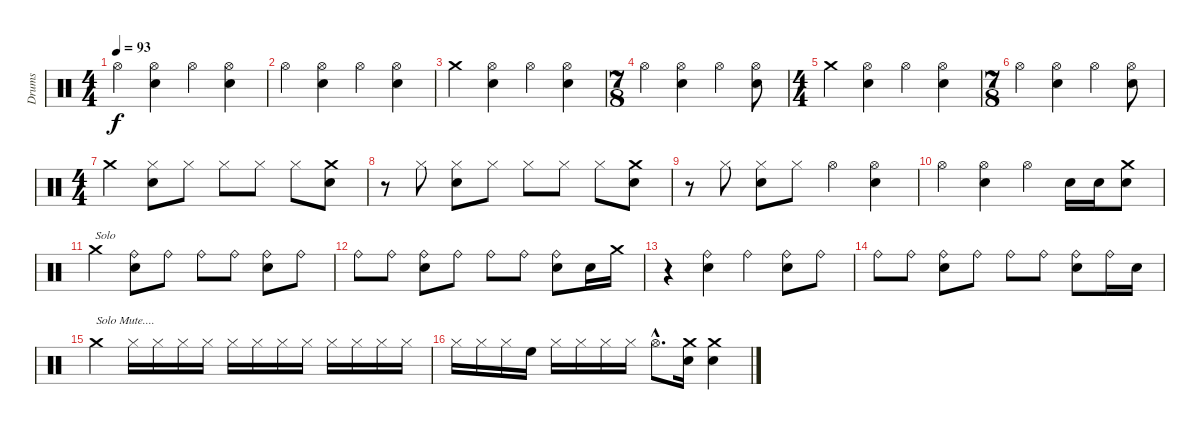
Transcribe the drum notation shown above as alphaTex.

\track ("Drums" "Drums") {instrument percussion}
\staff {score}
\articulation defaults
\ts (4 4)
\tempo 93
\clef neutral
\ks c "Hi-Hat (open)".4{dy f}
("Hi-Hat (open)" "Electric Snare (hit)").4 "Hi-Hat (open)".4 ("Hi-Hat (open)" "Electric Snare (hit)").4 |
"Hi-Hat (open)".4 ("Hi-Hat (open)" "Electric Snare (hit)").4 "Hi-Hat (open)".4 ("Hi-Hat (open)" "Electric Snare (hit)").4 |
"Crash medium (hit)".4 ("Hi-Hat (open)" "Electric Snare (hit)").4 "Hi-Hat (open)".4 ("Hi-Hat (open)" "Electric Snare (hit)").4 |
\ts (7 8)
"Hi-Hat (open)".4 ("Hi-Hat (open)" "Electric Snare (hit)").4 "Hi-Hat (open)".4 ("Hi-Hat (open)" "Electric Snare (hit)").8 |
\ts (4 4)
"Crash medium (hit)".4 ("Hi-Hat (open)" "Electric Snare (hit)").4 "Hi-Hat (open)".4 ("Hi-Hat (open)" "Electric Snare (hit)").4 |
\ts (7 8)
"Hi-Hat (open)".4 ("Hi-Hat (open)" "Electric Snare (hit)").4 "Hi-Hat (open)".4 ("Hi-Hat (open)" "Electric Snare (hit)").8 |
\ts (4 4)
"Crash medium (hit)".4 ("Hi-Hat (closed)" "Electric Snare (hit)").8 "Hi-Hat (closed)".8 "Hi-Hat (closed)".8 "Hi-Hat (closed)".8 "Hi-Hat (closed)".8 ("Crash medium (hit)" "Electric Snare (hit)").8 |
r.8 "Hi-Hat (closed)".8 ("Hi-Hat (closed)" "Electric Snare (hit)").8 "Hi-Hat (closed)".8 "Hi-Hat (closed)".8 "Hi-Hat (closed)".8 "Hi-Hat (closed)".8 ("Crash medium (hit)" "Electric Snare (hit)").8 |
r.8 "Hi-Hat (closed)".8 ("Hi-Hat (closed)" "Electric Snare (hit)").8 "Hi-Hat (closed)".8 "Hi-Hat (open)".4 ("Hi-Hat (open)" "Electric Snare (hit)").4 |
"Hi-Hat (open)".4 ("Hi-Hat (open)" "Electric Snare (hit)").4 "Hi-Hat (open)".4 "Electric Snare (hit)".16 "Electric Snare (hit)".16 ("Electric Snare (hit)" "Crash medium (hit)").8 |
"Crash medium (hit)".4{txt "Solo"} ("Ride (bell)" "Electric Snare (hit)").8 "Ride (bell)".8 "Ride (bell)".8 "Ride (bell)".8 ("Ride (bell)" "Electric Snare (hit)").8 "Ride (bell)".8 |
"Ride (bell)".8 "Ride (bell)".8 ("Ride (bell)" "Electric Snare (hit)").8 "Ride (bell)".8 "Ride (bell)".8 "Ride (bell)".8 ("Ride (bell)" "Electric Snare (hit)").8 "Electric Snare (hit)".16 "Crash medium (hit)".16 |
r.4 ("Ride (bell)" "Electric Snare (hit)").4 "Ride (bell)".4 ("Ride (bell)" "Electric Snare (hit)").8 "Ride (bell)".8 |
"Ride (bell)".8 "Ride (bell)".8 ("Ride (bell)" "Electric Snare (hit)").8 "Ride (bell)".8 "Ride (bell)".8 "Ride (bell)".8 ("Ride (bell)" "Electric Snare (hit)").8 "Ride (bell)".16 "Electric Snare (hit)".16 |
"Crash medium (hit)".4{txt "Solo Mute...."} "Hi-Hat (closed)".16 "Hi-Hat (closed)".16 "Hi-Hat (closed)".16 "Hi-Hat (closed)".16 "Hi-Hat (closed)".16 "Hi-Hat (closed)".16 "Hi-Hat (closed)".16 "Hi-Hat (closed)".16 "Hi-Hat (closed)".16 "Hi-Hat (closed)".16 "Hi-Hat (closed)".16 "Hi-Hat (closed)".16 |
"Hi-Hat (closed)".16 "Hi-Hat (closed)".16 "Hi-Hat (closed)".16 "High Floor Tom (hit)".16 "Hi-Hat (closed)".16 "Hi-Hat (closed)".16 "Hi-Hat (closed)".16 "Hi-Hat (closed)".16 "Hi-Hat (open)"{hac}.8{d} ("Crash medium (hit)" "Electric Snare (hit)").16 ("Crash medium (hit)" "Electric Snare (hit)").4
